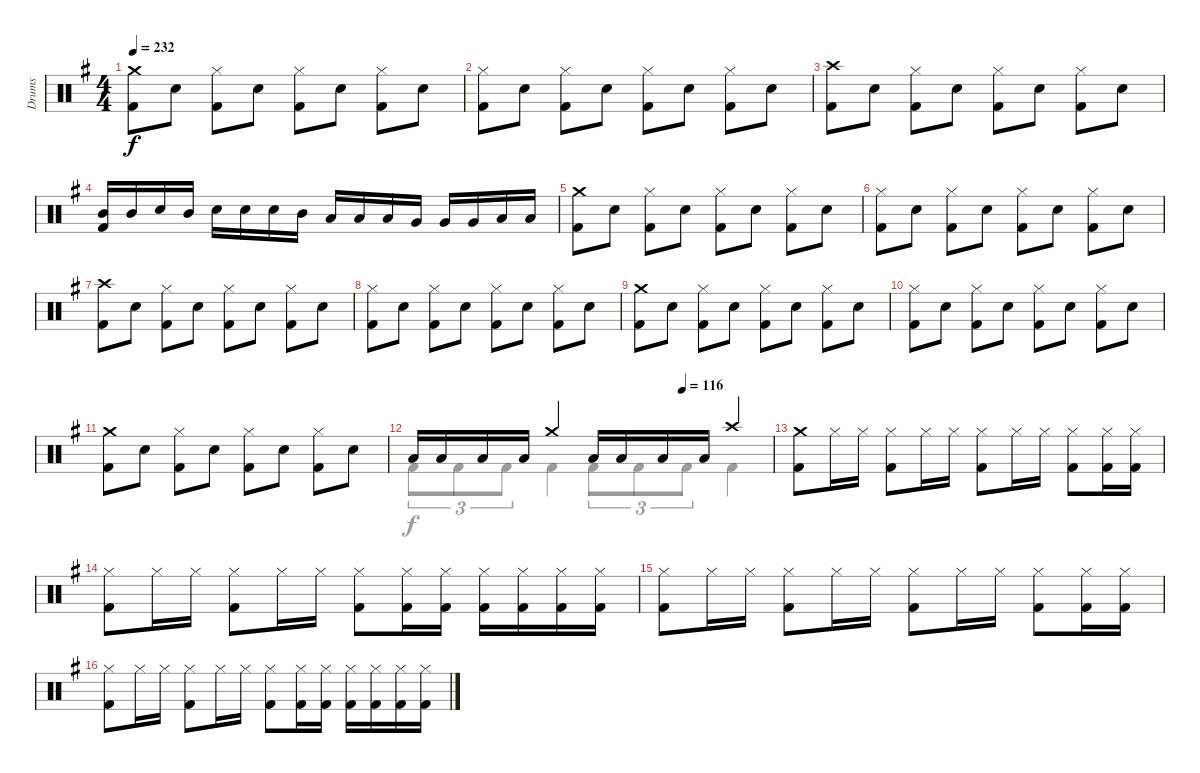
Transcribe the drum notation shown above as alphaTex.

\track ("Drums" "Drums") {instrument percussion}
\staff {score}
\articulation defaults
\voice
\ts (4 4)
\tempo 232
\clef neutral
\ks eminor
("Crash medium (hit)" "Kick (hit) 2").8{dy f} "Snare (hit) 2".8 ("Hi-Hat (closed)" "Kick (hit) 2").8 "Snare (hit) 2".8 ("Hi-Hat (closed)" "Kick (hit) 2").8 "Snare (hit) 2".8 ("Hi-Hat (closed)" "Kick (hit) 2").8 "Snare (hit) 2".8 |
("Hi-Hat (closed)" "Kick (hit) 2").8 "Snare (hit) 2".8 ("Hi-Hat (closed)" "Kick (hit) 2").8 "Snare (hit) 2".8 ("Hi-Hat (closed)" "Kick (hit) 2").8 "Snare (hit) 2".8 ("Hi-Hat (closed)" "Kick (hit) 2").8 "Snare (hit) 2".8 |
("Crash high (hit)" "Kick (hit) 2").8 "Snare (hit) 2".8 ("Hi-Hat (closed)" "Kick (hit) 2").8 "Snare (hit) 2".8 ("Hi-Hat (closed)" "Kick (hit) 2").8 "Snare (hit) 2".8 ("Hi-Hat (closed)" "Kick (hit) 2").8 "Snare (hit) 2".8 |
("Mid Tom (hit)" "Kick (hit) 2").16 "Mid Tom (hit)".16 "Snare (hit) 2".16 "Mid Tom (hit)".16 "Snare (hit) 2".16 "Snare (hit) 2".16 "Snare (hit) 2".16 "Mid Tom (hit)".16 "Low Tom (hit)".16 "Low Tom (hit)".16 "Low Tom (hit)".16 "Very Low Tom (hit)".16 "Very Low Tom (hit)".16 "Very Low Tom (hit)".16 "Low Floor Tom (hit)".16 "Low Floor Tom (hit)".16 |
("Crash medium (hit)" "Kick (hit) 2").8 "Snare (hit) 2".8 ("Hi-Hat (closed)" "Kick (hit) 2").8 "Snare (hit) 2".8 ("Hi-Hat (closed)" "Kick (hit) 2").8 "Snare (hit) 2".8 ("Hi-Hat (closed)" "Kick (hit) 2").8 "Snare (hit) 2".8 |
("Hi-Hat (closed)" "Kick (hit) 2").8 "Snare (hit) 2".8 ("Hi-Hat (closed)" "Kick (hit) 2").8 "Snare (hit) 2".8 ("Hi-Hat (closed)" "Kick (hit) 2").8 "Snare (hit) 2".8 ("Hi-Hat (closed)" "Kick (hit) 2").8 "Snare (hit) 2".8 |
("Crash high (hit)" "Kick (hit) 2").8 "Snare (hit) 2".8 ("Hi-Hat (closed)" "Kick (hit) 2").8 "Snare (hit) 2".8 ("Hi-Hat (closed)" "Kick (hit) 2").8 "Snare (hit) 2".8 ("Hi-Hat (closed)" "Kick (hit) 2").8 "Snare (hit) 2".8 |
("Hi-Hat (closed)" "Kick (hit) 2").8 "Snare (hit) 2".8 ("Hi-Hat (closed)" "Kick (hit) 2").8 "Snare (hit) 2".8 ("Hi-Hat (closed)" "Kick (hit) 2").8 "Snare (hit) 2".8 ("Hi-Hat (closed)" "Kick (hit) 2").8 "Snare (hit) 2".8 |
("Crash medium (hit)" "Kick (hit) 2").8 "Snare (hit) 2".8 ("Hi-Hat (closed)" "Kick (hit) 2").8 "Snare (hit) 2".8 ("Hi-Hat (closed)" "Kick (hit) 2").8 "Snare (hit) 2".8 ("Hi-Hat (closed)" "Kick (hit) 2").8 "Snare (hit) 2".8 |
("Hi-Hat (closed)" "Kick (hit) 2").8 "Snare (hit) 2".8 ("Hi-Hat (closed)" "Kick (hit) 2").8 "Snare (hit) 2".8 ("Hi-Hat (closed)" "Kick (hit) 2").8 "Snare (hit) 2".8 ("Hi-Hat (closed)" "Kick (hit) 2").8 "Snare (hit) 2".8 |
("Crash medium (hit)" "Kick (hit) 2").8 "Snare (hit) 2".8 ("Hi-Hat (closed)" "Kick (hit) 2").8 "Snare (hit) 2".8 ("Hi-Hat (closed)" "Kick (hit) 2").8 "Snare (hit) 2".8 ("Hi-Hat (closed)" "Kick (hit) 2").8 "Snare (hit) 2".8 |
\tempo (116 0.75)
"Low Tom (hit)".16 "Low Tom (hit)".16 "Low Tom (hit)".16 "Low Tom (hit)".16 "Crash medium (hit)".4 "Low Tom (hit)".16 "Low Tom (hit)".16 "Low Tom (hit)".16 "Low Tom (hit)".16 "Crash high (hit)".4 |
("Crash medium (hit)" "Kick (hit) 2").8 "Hi-Hat (closed)".16 "Hi-Hat (closed)".16 ("Hi-Hat (closed)" "Kick (hit) 2").8 "Hi-Hat (closed)".16 "Hi-Hat (closed)".16 ("Hi-Hat (closed)" "Kick (hit) 2").8 "Hi-Hat (closed)".16 "Hi-Hat (closed)".16 ("Hi-Hat (closed)" "Kick (hit) 2").8 ("Hi-Hat (closed)" "Kick (hit) 2").16 ("Hi-Hat (closed)" "Kick (hit) 2").16 |
("Hi-Hat (closed)" "Kick (hit) 2").8 "Hi-Hat (closed)".16 "Hi-Hat (closed)".16 ("Hi-Hat (closed)" "Kick (hit) 2").8 "Hi-Hat (closed)".16 "Hi-Hat (closed)".16 ("Hi-Hat (closed)" "Kick (hit) 2").8 ("Hi-Hat (closed)" "Kick (hit) 2").16 ("Hi-Hat (closed)" "Kick (hit) 2").16 ("Hi-Hat (closed)" "Kick (hit) 2").16 ("Hi-Hat (closed)" "Kick (hit) 2").16 ("Hi-Hat (closed)" "Kick (hit) 2").16 ("Hi-Hat (closed)" "Kick (hit) 2").16 |
("Hi-Hat (closed)" "Kick (hit) 2").8 "Hi-Hat (closed)".16 "Hi-Hat (closed)".16 ("Hi-Hat (closed)" "Kick (hit) 2").8 "Hi-Hat (closed)".16 "Hi-Hat (closed)".16 ("Hi-Hat (closed)" "Kick (hit) 2").8 "Hi-Hat (closed)".16 "Hi-Hat (closed)".16 ("Hi-Hat (closed)" "Kick (hit) 2").8 ("Hi-Hat (closed)" "Kick (hit) 2").16 ("Hi-Hat (closed)" "Kick (hit) 2").16 |
("Hi-Hat (closed)" "Kick (hit) 2").8 "Hi-Hat (closed)".16 "Hi-Hat (closed)".16 ("Hi-Hat (closed)" "Kick (hit) 2").8 "Hi-Hat (closed)".16 "Hi-Hat (closed)".16 ("Hi-Hat (closed)" "Kick (hit) 2").8 ("Hi-Hat (closed)" "Kick (hit) 2").16 ("Hi-Hat (closed)" "Kick (hit) 2").16 ("Hi-Hat (closed)" "Kick (hit) 2").16 ("Hi-Hat (closed)" "Kick (hit) 2").16 ("Hi-Hat (closed)" "Kick (hit) 2").16 ("Hi-Hat (closed)" "Kick (hit) 2").16
\voice
\clef neutral
\ottava regular
\simile none
\ks eminor
|
|
|
|
|
|
|
|
|
|
|
"Kick (hit) 2".8{tu (3 2)} "Kick (hit) 2".8{tu (3 2)} "Kick (hit) 2".8{tu (3 2)} "Kick (hit) 2".4 "Kick (hit) 2".8{tu (3 2)} "Kick (hit) 2".8{tu (3 2)} "Kick (hit) 2".8{tu (3 2)} "Kick (hit) 2".4 |
|
|
|
